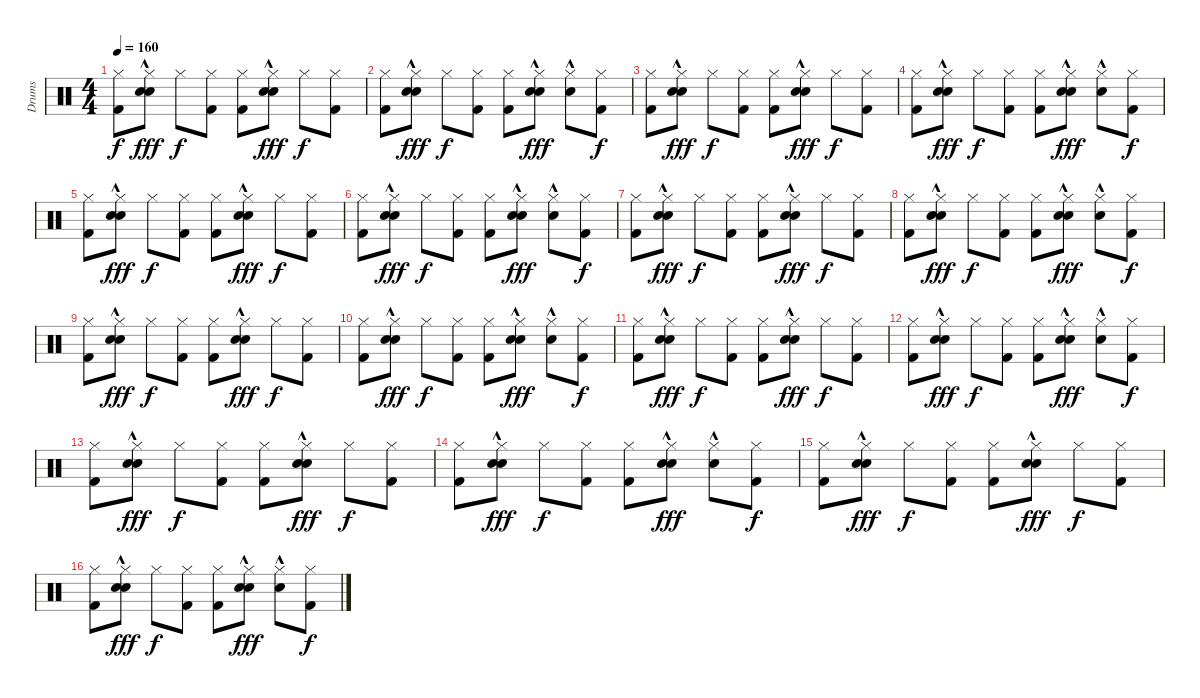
\track ("Drums" "Drums") {instrument percussion}
\staff {score}
\articulation defaults
\ts (4 4)
\tempo 160
\clef neutral
\ks c
("Hi-Hat (closed)" "Kick (hit) 2").8{dy f} ("Hi-Hat (closed)" "Electric Snare (hit)" "Hand Clap (hit)"{hac}).8{dy fff} "Hi-Hat (closed)".8{dy f} ("Hi-Hat (closed)" "Kick (hit) 2").8 ("Hi-Hat (closed)" "Kick (hit) 2").8 ("Hi-Hat (closed)" "Electric Snare (hit)" "Hand Clap (hit)"{hac}).8{dy fff} "Hi-Hat (closed)".8{dy f} ("Hi-Hat (closed)" "Kick (hit) 2").8 |
("Hi-Hat (closed)" "Kick (hit) 2").8 ("Hi-Hat (closed)" "Electric Snare (hit)" "Hand Clap (hit)"{hac}).8{dy fff} "Hi-Hat (closed)".8{dy f} ("Hi-Hat (closed)" "Kick (hit) 2").8 ("Hi-Hat (closed)" "Kick (hit) 2").8 ("Hi-Hat (closed)" "Electric Snare (hit)" "Hand Clap (hit)"{hac}).8{dy fff} ("Hi-Hat (closed)" "Hand Clap (hit)"{hac}).8 ("Hi-Hat (closed)" "Kick (hit) 2").8{dy f} |
("Hi-Hat (closed)" "Kick (hit) 2").8 ("Hi-Hat (closed)" "Electric Snare (hit)" "Hand Clap (hit)"{hac}).8{dy fff} "Hi-Hat (closed)".8{dy f} ("Hi-Hat (closed)" "Kick (hit) 2").8 ("Hi-Hat (closed)" "Kick (hit) 2").8 ("Hi-Hat (closed)" "Electric Snare (hit)" "Hand Clap (hit)"{hac}).8{dy fff} "Hi-Hat (closed)".8{dy f} ("Hi-Hat (closed)" "Kick (hit) 2").8 |
("Hi-Hat (closed)" "Kick (hit) 2").8 ("Hi-Hat (closed)" "Electric Snare (hit)" "Hand Clap (hit)"{hac}).8{dy fff} "Hi-Hat (closed)".8{dy f} ("Hi-Hat (closed)" "Kick (hit) 2").8 ("Hi-Hat (closed)" "Kick (hit) 2").8 ("Hi-Hat (closed)" "Electric Snare (hit)" "Hand Clap (hit)"{hac}).8{dy fff} ("Hi-Hat (closed)" "Hand Clap (hit)"{hac}).8 ("Hi-Hat (closed)" "Kick (hit) 2").8{dy f} |
("Hi-Hat (closed)" "Kick (hit) 2").8 ("Hi-Hat (closed)" "Electric Snare (hit)" "Hand Clap (hit)"{hac}).8{dy fff} "Hi-Hat (closed)".8{dy f} ("Hi-Hat (closed)" "Kick (hit) 2").8 ("Hi-Hat (closed)" "Kick (hit) 2").8 ("Hi-Hat (closed)" "Electric Snare (hit)" "Hand Clap (hit)"{hac}).8{dy fff} "Hi-Hat (closed)".8{dy f} ("Hi-Hat (closed)" "Kick (hit) 2").8 |
("Hi-Hat (closed)" "Kick (hit) 2").8 ("Hi-Hat (closed)" "Electric Snare (hit)" "Hand Clap (hit)"{hac}).8{dy fff} "Hi-Hat (closed)".8{dy f} ("Hi-Hat (closed)" "Kick (hit) 2").8 ("Hi-Hat (closed)" "Kick (hit) 2").8 ("Hi-Hat (closed)" "Electric Snare (hit)" "Hand Clap (hit)"{hac}).8{dy fff} ("Hi-Hat (closed)" "Hand Clap (hit)"{hac}).8 ("Hi-Hat (closed)" "Kick (hit) 2").8{dy f} |
("Hi-Hat (closed)" "Kick (hit) 2").8 ("Hi-Hat (closed)" "Electric Snare (hit)" "Hand Clap (hit)"{hac}).8{dy fff} "Hi-Hat (closed)".8{dy f} ("Hi-Hat (closed)" "Kick (hit) 2").8 ("Hi-Hat (closed)" "Kick (hit) 2").8 ("Hi-Hat (closed)" "Electric Snare (hit)" "Hand Clap (hit)"{hac}).8{dy fff} "Hi-Hat (closed)".8{dy f} ("Hi-Hat (closed)" "Kick (hit) 2").8 |
("Hi-Hat (closed)" "Kick (hit) 2").8 ("Hi-Hat (closed)" "Electric Snare (hit)" "Hand Clap (hit)"{hac}).8{dy fff} "Hi-Hat (closed)".8{dy f} ("Hi-Hat (closed)" "Kick (hit) 2").8 ("Hi-Hat (closed)" "Kick (hit) 2").8 ("Hi-Hat (closed)" "Electric Snare (hit)" "Hand Clap (hit)"{hac}).8{dy fff} ("Hi-Hat (closed)" "Hand Clap (hit)"{hac}).8 ("Hi-Hat (closed)" "Kick (hit) 2").8{dy f} |
("Hi-Hat (closed)" "Kick (hit) 2").8 ("Hi-Hat (closed)" "Electric Snare (hit)" "Hand Clap (hit)"{hac}).8{dy fff} "Hi-Hat (closed)".8{dy f} ("Hi-Hat (closed)" "Kick (hit) 2").8 ("Hi-Hat (closed)" "Kick (hit) 2").8 ("Hi-Hat (closed)" "Electric Snare (hit)" "Hand Clap (hit)"{hac}).8{dy fff} "Hi-Hat (closed)".8{dy f} ("Hi-Hat (closed)" "Kick (hit) 2").8 |
("Hi-Hat (closed)" "Kick (hit) 2").8 ("Hi-Hat (closed)" "Electric Snare (hit)" "Hand Clap (hit)"{hac}).8{dy fff} "Hi-Hat (closed)".8{dy f} ("Hi-Hat (closed)" "Kick (hit) 2").8 ("Hi-Hat (closed)" "Kick (hit) 2").8 ("Hi-Hat (closed)" "Electric Snare (hit)" "Hand Clap (hit)"{hac}).8{dy fff} ("Hi-Hat (closed)" "Hand Clap (hit)"{hac}).8 ("Hi-Hat (closed)" "Kick (hit) 2").8{dy f} |
("Hi-Hat (closed)" "Kick (hit) 2").8 ("Hi-Hat (closed)" "Electric Snare (hit)" "Hand Clap (hit)"{hac}).8{dy fff} "Hi-Hat (closed)".8{dy f} ("Hi-Hat (closed)" "Kick (hit) 2").8 ("Hi-Hat (closed)" "Kick (hit) 2").8 ("Hi-Hat (closed)" "Electric Snare (hit)" "Hand Clap (hit)"{hac}).8{dy fff} "Hi-Hat (closed)".8{dy f} ("Hi-Hat (closed)" "Kick (hit) 2").8 |
("Hi-Hat (closed)" "Kick (hit) 2").8 ("Hi-Hat (closed)" "Electric Snare (hit)" "Hand Clap (hit)"{hac}).8{dy fff} "Hi-Hat (closed)".8{dy f} ("Hi-Hat (closed)" "Kick (hit) 2").8 ("Hi-Hat (closed)" "Kick (hit) 2").8 ("Hi-Hat (closed)" "Electric Snare (hit)" "Hand Clap (hit)"{hac}).8{dy fff} ("Hi-Hat (closed)" "Hand Clap (hit)"{hac}).8 ("Hi-Hat (closed)" "Kick (hit) 2").8{dy f} |
("Hi-Hat (closed)" "Kick (hit) 2").8 ("Hi-Hat (closed)" "Electric Snare (hit)" "Hand Clap (hit)"{hac}).8{dy fff} "Hi-Hat (closed)".8{dy f} ("Hi-Hat (closed)" "Kick (hit) 2").8 ("Hi-Hat (closed)" "Kick (hit) 2").8 ("Hi-Hat (closed)" "Electric Snare (hit)" "Hand Clap (hit)"{hac}).8{dy fff} "Hi-Hat (closed)".8{dy f} ("Hi-Hat (closed)" "Kick (hit) 2").8 |
("Hi-Hat (closed)" "Kick (hit) 2").8 ("Hi-Hat (closed)" "Electric Snare (hit)" "Hand Clap (hit)"{hac}).8{dy fff} "Hi-Hat (closed)".8{dy f} ("Hi-Hat (closed)" "Kick (hit) 2").8 ("Hi-Hat (closed)" "Kick (hit) 2").8 ("Hi-Hat (closed)" "Electric Snare (hit)" "Hand Clap (hit)"{hac}).8{dy fff} ("Hi-Hat (closed)" "Hand Clap (hit)"{hac}).8 ("Hi-Hat (closed)" "Kick (hit) 2").8{dy f} |
("Hi-Hat (closed)" "Kick (hit) 2").8 ("Hi-Hat (closed)" "Electric Snare (hit)" "Hand Clap (hit)"{hac}).8{dy fff} "Hi-Hat (closed)".8{dy f} ("Hi-Hat (closed)" "Kick (hit) 2").8 ("Hi-Hat (closed)" "Kick (hit) 2").8 ("Hi-Hat (closed)" "Electric Snare (hit)" "Hand Clap (hit)"{hac}).8{dy fff} "Hi-Hat (closed)".8{dy f} ("Hi-Hat (closed)" "Kick (hit) 2").8 |
("Hi-Hat (closed)" "Kick (hit) 2").8 ("Hi-Hat (closed)" "Electric Snare (hit)" "Hand Clap (hit)"{hac}).8{dy fff} "Hi-Hat (closed)".8{dy f} ("Hi-Hat (closed)" "Kick (hit) 2").8 ("Hi-Hat (closed)" "Kick (hit) 2").8 ("Hi-Hat (closed)" "Electric Snare (hit)" "Hand Clap (hit)"{hac}).8{dy fff} ("Hi-Hat (closed)" "Hand Clap (hit)"{hac}).8 ("Hi-Hat (closed)" "Kick (hit) 2").8{dy f}
